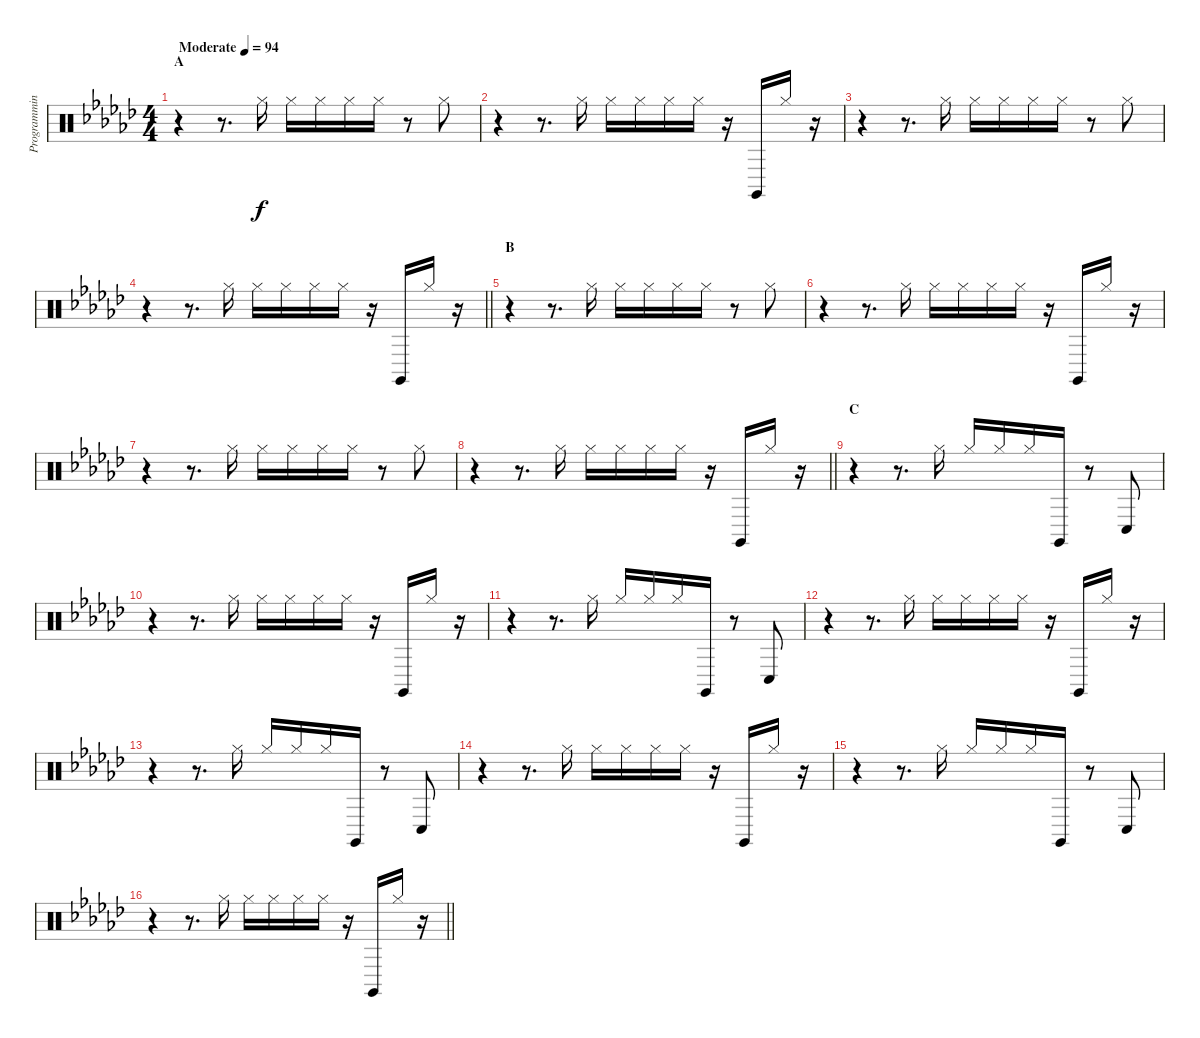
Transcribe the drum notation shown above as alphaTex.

\track ("Programming" "Programmin") {instrument percussion}
\staff {score}
\articulation defaults
\ts (4 4)
\section ("" "A")
\tempo (94 "Moderate")
\clef neutral
\ks gb
r.4{dy f} r.8{d} "Hi-Hat (closed)".16 "Hi-Hat (closed)".16 "Hi-Hat (closed)".16 "Hi-Hat (closed)".16 "Hi-Hat (closed)".16 r.8 "Hi-Hat (closed)".8 |
r.4 r.8{d} "Hi-Hat (closed)".16 "Hi-Hat (closed)".16 "Hi-Hat (closed)".16 "Hi-Hat (closed)".16 "Hi-Hat (closed)".16 r.16 "Claves (hit)".16 "Hi-Hat (closed)".16 r.16 |
r.4 r.8{d} "Hi-Hat (closed)".16 "Hi-Hat (closed)".16 "Hi-Hat (closed)".16 "Hi-Hat (closed)".16 "Hi-Hat (closed)".16 r.8 "Hi-Hat (closed)".8 |
\barLineRight lightlight
r.4 r.8{d} "Hi-Hat (closed)".16 "Hi-Hat (closed)".16 "Hi-Hat (closed)".16 "Hi-Hat (closed)".16 "Hi-Hat (closed)".16 r.16 "Claves (hit)".16 "Hi-Hat (closed)".16 r.16 |
\section ("" "B")
r.4 r.8{d} "Hi-Hat (closed)".16 "Hi-Hat (closed)".16 "Hi-Hat (closed)".16 "Hi-Hat (closed)".16 "Hi-Hat (closed)".16 r.8 "Hi-Hat (closed)".8 |
r.4 r.8{d} "Hi-Hat (closed)".16 "Hi-Hat (closed)".16 "Hi-Hat (closed)".16 "Hi-Hat (closed)".16 "Hi-Hat (closed)".16 r.16 "Claves (hit)".16 "Hi-Hat (closed)".16 r.16 |
r.4 r.8{d} "Hi-Hat (closed)".16 "Hi-Hat (closed)".16 "Hi-Hat (closed)".16 "Hi-Hat (closed)".16 "Hi-Hat (closed)".16 r.8 "Hi-Hat (closed)".8 |
\barLineRight lightlight
r.4 r.8{d} "Hi-Hat (closed)".16 "Hi-Hat (closed)".16 "Hi-Hat (closed)".16 "Hi-Hat (closed)".16 "Hi-Hat (closed)".16 r.16 "Claves (hit)".16 "Hi-Hat (closed)".16 r.16 |
\section ("" "C")
r.4 r.8{d} "Hi-Hat (closed)".16 "Hi-Hat (closed)".16 "Hi-Hat (closed)".16 "Hi-Hat (closed)".16 "Claves (hit)".16 r.8 "Conga low (hit)".8 |
r.4 r.8{d} "Hi-Hat (closed)".16 "Hi-Hat (closed)".16 "Hi-Hat (closed)".16 "Hi-Hat (closed)".16 "Hi-Hat (closed)".16 r.16 "Claves (hit)".16 "Hi-Hat (closed)".16 r.16 |
r.4 r.8{d} "Hi-Hat (closed)".16 "Hi-Hat (closed)".16 "Hi-Hat (closed)".16 "Hi-Hat (closed)".16 "Claves (hit)".16 r.8 "Conga low (hit)".8 |
r.4 r.8{d} "Hi-Hat (closed)".16 "Hi-Hat (closed)".16 "Hi-Hat (closed)".16 "Hi-Hat (closed)".16 "Hi-Hat (closed)".16 r.16 "Claves (hit)".16 "Hi-Hat (closed)".16 r.16 |
r.4 r.8{d} "Hi-Hat (closed)".16 "Hi-Hat (closed)".16 "Hi-Hat (closed)".16 "Hi-Hat (closed)".16 "Claves (hit)".16 r.8 "Conga low (hit)".8 |
r.4 r.8{d} "Hi-Hat (closed)".16 "Hi-Hat (closed)".16 "Hi-Hat (closed)".16 "Hi-Hat (closed)".16 "Hi-Hat (closed)".16 r.16 "Claves (hit)".16 "Hi-Hat (closed)".16 r.16 |
r.4 r.8{d} "Hi-Hat (closed)".16 "Hi-Hat (closed)".16 "Hi-Hat (closed)".16 "Hi-Hat (closed)".16 "Claves (hit)".16 r.8 "Conga low (hit)".8 |
\barLineRight lightlight
r.4 r.8{d} "Hi-Hat (closed)".16 "Hi-Hat (closed)".16 "Hi-Hat (closed)".16 "Hi-Hat (closed)".16 "Hi-Hat (closed)".16 r.16 "Claves (hit)".16 "Hi-Hat (closed)".16 r.16
